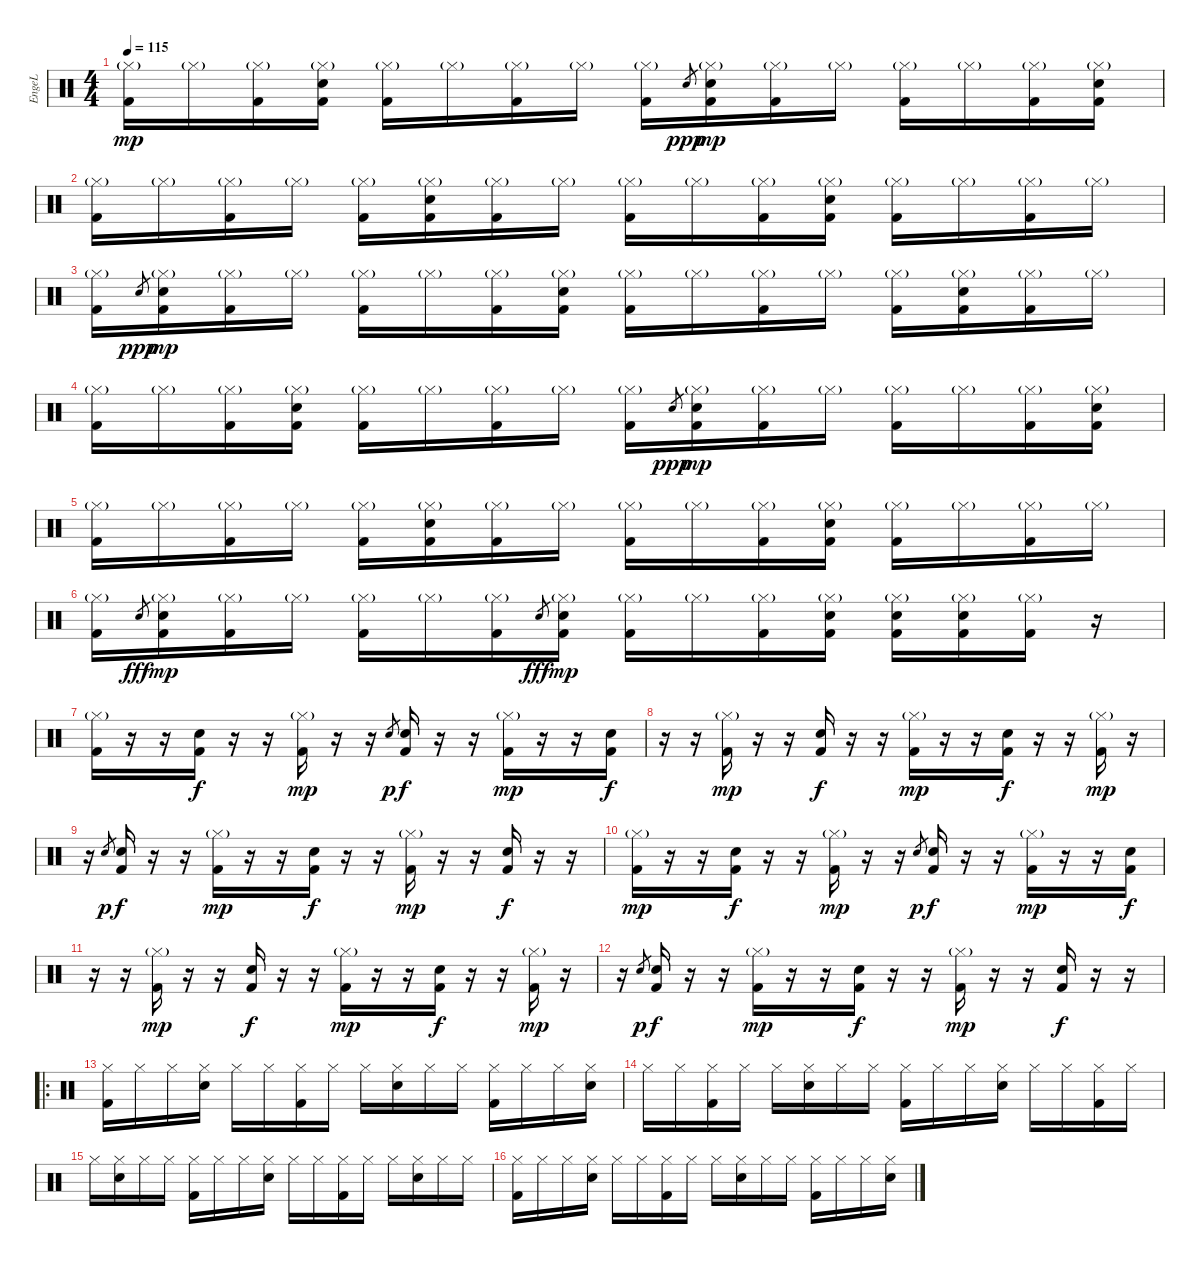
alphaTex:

\track ("EngeL" "EngeL") {instrument percussion}
\staff {score}
\articulation defaults
\ts (4 4)
\tempo 115
\clef neutral
\ks c
("Kick (hit) 2" "Hi-Hat (closed)"{g}).16{dy mp} "Hi-Hat (closed)"{g}.16 ("Kick (hit) 2" "Hi-Hat (closed)"{g}).16 ("Kick (hit) 2" "Snare (hit) 2" "Hi-Hat (closed)"{g}).16 ("Kick (hit) 2" "Hi-Hat (closed)"{g}).16 "Hi-Hat (closed)"{g}.16 ("Kick (hit) 2" "Hi-Hat (closed)"{g}).16 "Hi-Hat (closed)"{g}.16 ("Kick (hit) 2" "Hi-Hat (closed)"{g}).16 "Snare (hit) 2".8{gr dy ppp} ("Kick (hit) 2" "Snare (hit) 2" "Hi-Hat (closed)"{g}).16{dy mp} ("Kick (hit) 2" "Hi-Hat (closed)"{g}).16 "Hi-Hat (closed)"{g}.16 ("Kick (hit) 2" "Hi-Hat (closed)"{g}).16 "Hi-Hat (closed)"{g}.16 ("Kick (hit) 2" "Hi-Hat (closed)"{g}).16 ("Kick (hit) 2" "Snare (hit) 2" "Hi-Hat (closed)"{g}).16 |
("Kick (hit) 2" "Hi-Hat (closed)"{g}).16 "Hi-Hat (closed)"{g}.16 ("Kick (hit) 2" "Hi-Hat (closed)"{g}).16 "Hi-Hat (closed)"{g}.16 ("Kick (hit) 2" "Hi-Hat (closed)"{g}).16 ("Kick (hit) 2" "Snare (hit) 2" "Hi-Hat (closed)"{g}).16 ("Kick (hit) 2" "Hi-Hat (closed)"{g}).16 "Hi-Hat (closed)"{g}.16 ("Kick (hit) 2" "Hi-Hat (closed)"{g}).16 "Hi-Hat (closed)"{g}.16 ("Kick (hit) 2" "Hi-Hat (closed)"{g}).16 ("Kick (hit) 2" "Snare (hit) 2" "Hi-Hat (closed)"{g}).16 ("Kick (hit) 2" "Hi-Hat (closed)"{g}).16 "Hi-Hat (closed)"{g}.16 ("Kick (hit) 2" "Hi-Hat (closed)"{g}).16 "Hi-Hat (closed)"{g}.16 |
("Kick (hit) 2" "Hi-Hat (closed)"{g}).16 "Snare (hit) 2".8{gr dy ppp} ("Kick (hit) 2" "Snare (hit) 2" "Hi-Hat (closed)"{g}).16{dy mp} ("Kick (hit) 2" "Hi-Hat (closed)"{g}).16 "Hi-Hat (closed)"{g}.16 ("Kick (hit) 2" "Hi-Hat (closed)"{g}).16 "Hi-Hat (closed)"{g}.16 ("Kick (hit) 2" "Hi-Hat (closed)"{g}).16 ("Kick (hit) 2" "Snare (hit) 2" "Hi-Hat (closed)"{g}).16 ("Kick (hit) 2" "Hi-Hat (closed)"{g}).16 "Hi-Hat (closed)"{g}.16 ("Kick (hit) 2" "Hi-Hat (closed)"{g}).16 "Hi-Hat (closed)"{g}.16 ("Kick (hit) 2" "Hi-Hat (closed)"{g}).16 ("Kick (hit) 2" "Snare (hit) 2" "Hi-Hat (closed)"{g}).16 ("Kick (hit) 2" "Hi-Hat (closed)"{g}).16 "Hi-Hat (closed)"{g}.16 |
("Kick (hit) 2" "Hi-Hat (closed)"{g}).16 "Hi-Hat (closed)"{g}.16 ("Kick (hit) 2" "Hi-Hat (closed)"{g}).16 ("Kick (hit) 2" "Snare (hit) 2" "Hi-Hat (closed)"{g}).16 ("Kick (hit) 2" "Hi-Hat (closed)"{g}).16 "Hi-Hat (closed)"{g}.16 ("Kick (hit) 2" "Hi-Hat (closed)"{g}).16 "Hi-Hat (closed)"{g}.16 ("Kick (hit) 2" "Hi-Hat (closed)"{g}).16 "Snare (hit) 2".8{gr dy ppp} ("Kick (hit) 2" "Snare (hit) 2" "Hi-Hat (closed)"{g}).16{dy mp} ("Kick (hit) 2" "Hi-Hat (closed)"{g}).16 "Hi-Hat (closed)"{g}.16 ("Kick (hit) 2" "Hi-Hat (closed)"{g}).16 "Hi-Hat (closed)"{g}.16 ("Kick (hit) 2" "Hi-Hat (closed)"{g}).16 ("Kick (hit) 2" "Snare (hit) 2" "Hi-Hat (closed)"{g}).16 |
("Kick (hit) 2" "Hi-Hat (closed)"{g}).16 "Hi-Hat (closed)"{g}.16 ("Kick (hit) 2" "Hi-Hat (closed)"{g}).16 "Hi-Hat (closed)"{g}.16 ("Kick (hit) 2" "Hi-Hat (closed)"{g}).16 ("Kick (hit) 2" "Snare (hit) 2" "Hi-Hat (closed)"{g}).16 ("Kick (hit) 2" "Hi-Hat (closed)"{g}).16 "Hi-Hat (closed)"{g}.16 ("Kick (hit) 2" "Hi-Hat (closed)"{g}).16 "Hi-Hat (closed)"{g}.16 ("Kick (hit) 2" "Hi-Hat (closed)"{g}).16 ("Kick (hit) 2" "Snare (hit) 2" "Hi-Hat (closed)"{g}).16 ("Kick (hit) 2" "Hi-Hat (closed)"{g}).16 "Hi-Hat (closed)"{g}.16 ("Kick (hit) 2" "Hi-Hat (closed)"{g}).16 "Hi-Hat (closed)"{g}.16 |
("Kick (hit) 2" "Hi-Hat (closed)"{g}).16 "Snare (hit) 2".8{gr dy fff} ("Kick (hit) 2" "Snare (hit) 2" "Hi-Hat (closed)"{g}).16{dy mp} ("Kick (hit) 2" "Hi-Hat (closed)"{g}).16 "Hi-Hat (closed)"{g}.16 ("Kick (hit) 2" "Hi-Hat (closed)"{g}).16 "Hi-Hat (closed)"{g}.16 ("Kick (hit) 2" "Hi-Hat (closed)"{g}).16 "Snare (hit) 2".8{gr dy fff} ("Kick (hit) 2" "Snare (hit) 2" "Hi-Hat (closed)"{g}).16{dy mp} ("Kick (hit) 2" "Hi-Hat (closed)"{g}).16 "Hi-Hat (closed)"{g}.16 ("Kick (hit) 2" "Hi-Hat (closed)"{g}).16 ("Kick (hit) 2" "Snare (hit) 2" "Hi-Hat (closed)"{g}).16 ("Kick (hit) 2" "Snare (hit) 2" "Hi-Hat (closed)"{g}).16 ("Kick (hit) 2" "Snare (hit) 2" "Hi-Hat (closed)"{g}).16 ("Kick (hit) 2" "Hi-Hat (closed)"{g}).16 r.16 |
("Kick (hit) 2" "Hi-Hat (closed)"{g}).16 r.16 r.16 ("Kick (hit) 2" "Snare (hit) 2").16{dy f} r.16 r.16 ("Kick (hit) 2" "Hi-Hat (closed)"{g}).16{dy mp} r.16 r.16 "Snare (hit) 2".8{gr dy p} ("Kick (hit) 2" "Snare (hit) 2").16{dy f} r.16 r.16 ("Kick (hit) 2" "Hi-Hat (closed)"{g}).16{dy mp} r.16 r.16 ("Kick (hit) 2" "Snare (hit) 2").16{dy f} |
r.16 r.16 ("Kick (hit) 2" "Hi-Hat (closed)"{g}).16{dy mp} r.16 r.16 ("Kick (hit) 2" "Snare (hit) 2").16{dy f} r.16 r.16 ("Kick (hit) 2" "Hi-Hat (closed)"{g}).16{dy mp} r.16 r.16 ("Kick (hit) 2" "Snare (hit) 2").16{dy f} r.16 r.16 ("Kick (hit) 2" "Hi-Hat (closed)"{g}).16{dy mp} r.16 |
r.16 "Snare (hit) 2".8{gr dy p} ("Kick (hit) 2" "Snare (hit) 2").16{dy f} r.16 r.16 ("Kick (hit) 2" "Hi-Hat (closed)"{g}).16{dy mp} r.16 r.16 ("Kick (hit) 2" "Snare (hit) 2").16{dy f} r.16 r.16 ("Kick (hit) 2" "Hi-Hat (closed)"{g}).16{dy mp} r.16 r.16 ("Kick (hit) 2" "Snare (hit) 2").16{dy f} r.16 r.16 |
("Kick (hit) 2" "Hi-Hat (closed)"{g}).16{dy mp} r.16 r.16 ("Kick (hit) 2" "Snare (hit) 2").16{dy f} r.16 r.16 ("Kick (hit) 2" "Hi-Hat (closed)"{g}).16{dy mp} r.16 r.16 "Snare (hit) 2".8{gr dy p} ("Kick (hit) 2" "Snare (hit) 2").16{dy f} r.16 r.16 ("Kick (hit) 2" "Hi-Hat (closed)"{g}).16{dy mp} r.16 r.16 ("Kick (hit) 2" "Snare (hit) 2").16{dy f} |
r.16 r.16 ("Kick (hit) 2" "Hi-Hat (closed)"{g}).16{dy mp} r.16 r.16 ("Kick (hit) 2" "Snare (hit) 2").16{dy f} r.16 r.16 ("Kick (hit) 2" "Hi-Hat (closed)"{g}).16{dy mp} r.16 r.16 ("Kick (hit) 2" "Snare (hit) 2").16{dy f} r.16 r.16 ("Kick (hit) 2" "Hi-Hat (closed)"{g}).16{dy mp} r.16 |
r.16 "Snare (hit) 2".8{gr dy p} ("Kick (hit) 2" "Snare (hit) 2").16{dy f} r.16 r.16 ("Kick (hit) 2" "Hi-Hat (closed)"{g}).16{dy mp} r.16 r.16 ("Kick (hit) 2" "Snare (hit) 2").16{dy f} r.16 r.16 ("Kick (hit) 2" "Hi-Hat (closed)"{g}).16{dy mp} r.16 r.16 ("Kick (hit) 2" "Snare (hit) 2").16{dy f} r.16 r.16 |
\ro
("Hi-Hat (closed)" "Kick (hit) 2").16 "Hi-Hat (closed)".16 "Hi-Hat (closed)".16 ("Hi-Hat (closed)" "Snare (hit) 2").16 "Hi-Hat (closed)".16 "Hi-Hat (closed)".16 ("Hi-Hat (closed)" "Kick (hit) 2").16 "Hi-Hat (closed)".16 "Hi-Hat (closed)".16 ("Hi-Hat (closed)" "Snare (hit) 2").16 "Hi-Hat (closed)".16 "Hi-Hat (closed)".16 ("Hi-Hat (closed)" "Kick (hit) 2").16 "Hi-Hat (closed)".16 "Hi-Hat (closed)".16 ("Hi-Hat (closed)" "Snare (hit) 2").16 |
"Hi-Hat (closed)".16 "Hi-Hat (closed)".16 ("Hi-Hat (closed)" "Kick (hit) 2").16 "Hi-Hat (closed)".16 "Hi-Hat (closed)".16 ("Hi-Hat (closed)" "Snare (hit) 2").16 "Hi-Hat (closed)".16 "Hi-Hat (closed)".16 ("Hi-Hat (closed)" "Kick (hit) 2").16 "Hi-Hat (closed)".16 "Hi-Hat (closed)".16 ("Hi-Hat (closed)" "Snare (hit) 2").16 "Hi-Hat (closed)".16 "Hi-Hat (closed)".16 ("Hi-Hat (closed)" "Kick (hit) 2").16 "Hi-Hat (closed)".16 |
"Hi-Hat (closed)".16 ("Hi-Hat (closed)" "Snare (hit) 2").16 "Hi-Hat (closed)".16 "Hi-Hat (closed)".16 ("Hi-Hat (closed)" "Kick (hit) 2").16 "Hi-Hat (closed)".16 "Hi-Hat (closed)".16 ("Hi-Hat (closed)" "Snare (hit) 2").16 "Hi-Hat (closed)".16 "Hi-Hat (closed)".16 ("Hi-Hat (closed)" "Kick (hit) 2").16 "Hi-Hat (closed)".16 "Hi-Hat (closed)".16 ("Hi-Hat (closed)" "Snare (hit) 2").16 "Hi-Hat (closed)".16 "Hi-Hat (closed)".16 |
("Hi-Hat (closed)" "Kick (hit) 2").16 "Hi-Hat (closed)".16 "Hi-Hat (closed)".16 ("Hi-Hat (closed)" "Snare (hit) 2").16 "Hi-Hat (closed)".16 "Hi-Hat (closed)".16 ("Hi-Hat (closed)" "Kick (hit) 2").16 "Hi-Hat (closed)".16 "Hi-Hat (closed)".16 ("Hi-Hat (closed)" "Snare (hit) 2").16 "Hi-Hat (closed)".16 "Hi-Hat (closed)".16 ("Hi-Hat (closed)" "Kick (hit) 2").16 "Hi-Hat (closed)".16 "Hi-Hat (closed)".16 ("Hi-Hat (closed)" "Snare (hit) 2").16
